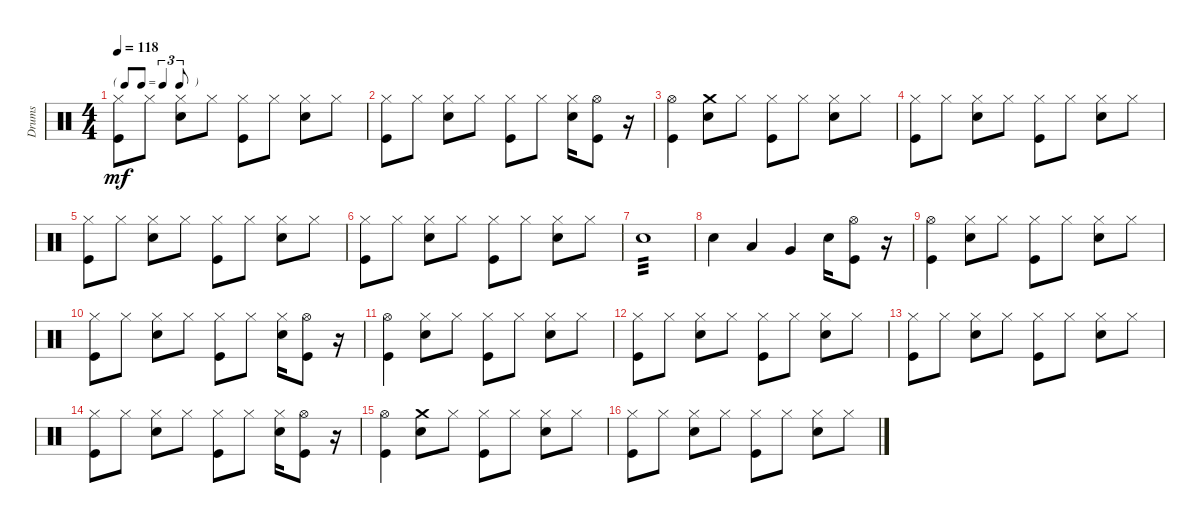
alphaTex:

\track ("Drums" "Drums") {instrument percussion}
\staff {score}
\articulation defaults
\ts (4 4)
\tf triplet8th
\tempo 118
\clef neutral
\ks c
("Hi-Hat (closed)" "Kick (hit)").8{dy mf} "Hi-Hat (closed)".8 ("Hi-Hat (closed)" "Snare (hit) 2").8 "Hi-Hat (closed)".8 ("Hi-Hat (closed)" "Kick (hit)").8 "Hi-Hat (closed)".8 ("Hi-Hat (closed)" "Snare (hit) 2").8 "Hi-Hat (closed)".8 |
("Hi-Hat (closed)" "Kick (hit)").8 "Hi-Hat (closed)".8 ("Hi-Hat (closed)" "Snare (hit) 2").8 "Hi-Hat (closed)".8 ("Hi-Hat (closed)" "Kick (hit)").8 "Hi-Hat (closed)".8 ("Hi-Hat (closed)" "Snare (hit) 2").16 ("Hi-Hat (open)" "Kick (hit)").8 r.16 |
("Kick (hit)" "Hi-Hat (open)").4 ("Crash medium (hit)" "Snare (hit) 2").8 "Hi-Hat (closed)".8 ("Hi-Hat (closed)" "Kick (hit)").8 "Hi-Hat (closed)".8 ("Hi-Hat (closed)" "Snare (hit) 2").8 "Hi-Hat (closed)".8 |
("Hi-Hat (closed)" "Kick (hit)").8 "Hi-Hat (closed)".8 ("Hi-Hat (closed)" "Snare (hit) 2").8 "Hi-Hat (closed)".8 ("Hi-Hat (closed)" "Kick (hit)").8 "Hi-Hat (closed)".8 ("Hi-Hat (closed)" "Snare (hit) 2").8 "Hi-Hat (closed)".8 |
("Hi-Hat (closed)" "Kick (hit)").8 "Hi-Hat (closed)".8 ("Hi-Hat (closed)" "Snare (hit) 2").8 "Hi-Hat (closed)".8 ("Hi-Hat (closed)" "Kick (hit)").8 "Hi-Hat (closed)".8 ("Hi-Hat (closed)" "Snare (hit) 2").8 "Hi-Hat (closed)".8 |
("Hi-Hat (closed)" "Kick (hit)").8 "Hi-Hat (closed)".8 ("Hi-Hat (closed)" "Snare (hit) 2").8 "Hi-Hat (closed)".8 ("Hi-Hat (closed)" "Kick (hit)").8 "Hi-Hat (closed)".8 ("Hi-Hat (closed)" "Snare (hit) 2").8 "Hi-Hat (closed)".8 |
"Snare (hit) 2".1{tp 3} |
"Snare (hit) 2".4 "Low Tom (hit)".4 "Very Low Tom (hit)".4 "Snare (hit) 2".16 ("Hi-Hat (open)" "Kick (hit)").8 r.16 |
("Hi-Hat (open)" "Kick (hit)").4 ("Hi-Hat (closed)" "Snare (hit) 2").8 "Hi-Hat (closed)".8 ("Hi-Hat (closed)" "Kick (hit)").8 "Hi-Hat (closed)".8 ("Hi-Hat (closed)" "Snare (hit) 2").8 "Hi-Hat (closed)".8 |
("Hi-Hat (closed)" "Kick (hit)").8 "Hi-Hat (closed)".8 ("Hi-Hat (closed)" "Snare (hit) 2").8 "Hi-Hat (closed)".8 ("Hi-Hat (closed)" "Kick (hit)").8 "Hi-Hat (closed)".8 ("Hi-Hat (closed)" "Snare (hit) 2").16 ("Hi-Hat (open)" "Kick (hit)").8 r.16 |
("Hi-Hat (open)" "Kick (hit)").4 ("Hi-Hat (closed)" "Snare (hit) 2").8 "Hi-Hat (closed)".8 ("Hi-Hat (closed)" "Kick (hit)").8 "Hi-Hat (closed)".8 ("Hi-Hat (closed)" "Snare (hit) 2").8 "Hi-Hat (closed)".8 |
("Hi-Hat (closed)" "Kick (hit)").8 "Hi-Hat (closed)".8 ("Hi-Hat (closed)" "Snare (hit) 2").8 "Hi-Hat (closed)".8 ("Hi-Hat (closed)" "Kick (hit)").8 "Hi-Hat (closed)".8 ("Hi-Hat (closed)" "Snare (hit) 2").8 "Hi-Hat (closed)".8 |
("Hi-Hat (closed)" "Kick (hit)").8 "Hi-Hat (closed)".8 ("Hi-Hat (closed)" "Snare (hit) 2").8 "Hi-Hat (closed)".8 ("Hi-Hat (closed)" "Kick (hit)").8 "Hi-Hat (closed)".8 ("Hi-Hat (closed)" "Snare (hit) 2").8 "Hi-Hat (closed)".8 |
("Hi-Hat (closed)" "Kick (hit)").8 "Hi-Hat (closed)".8 ("Hi-Hat (closed)" "Snare (hit) 2").8 "Hi-Hat (closed)".8 ("Hi-Hat (closed)" "Kick (hit)").8 "Hi-Hat (closed)".8 ("Hi-Hat (closed)" "Snare (hit) 2").16 ("Hi-Hat (open)" "Kick (hit)").8 r.16 |
("Kick (hit)" "Hi-Hat (open)").4 ("Crash medium (hit)" "Snare (hit) 2").8 "Hi-Hat (closed)".8 ("Hi-Hat (closed)" "Kick (hit)").8 "Hi-Hat (closed)".8 ("Hi-Hat (closed)" "Snare (hit) 2").8 "Hi-Hat (closed)".8 |
("Hi-Hat (closed)" "Kick (hit)").8 "Hi-Hat (closed)".8 ("Hi-Hat (closed)" "Snare (hit) 2").8 "Hi-Hat (closed)".8 ("Hi-Hat (closed)" "Kick (hit)").8 "Hi-Hat (closed)".8 ("Hi-Hat (closed)" "Snare (hit) 2").8 "Hi-Hat (closed)".8
